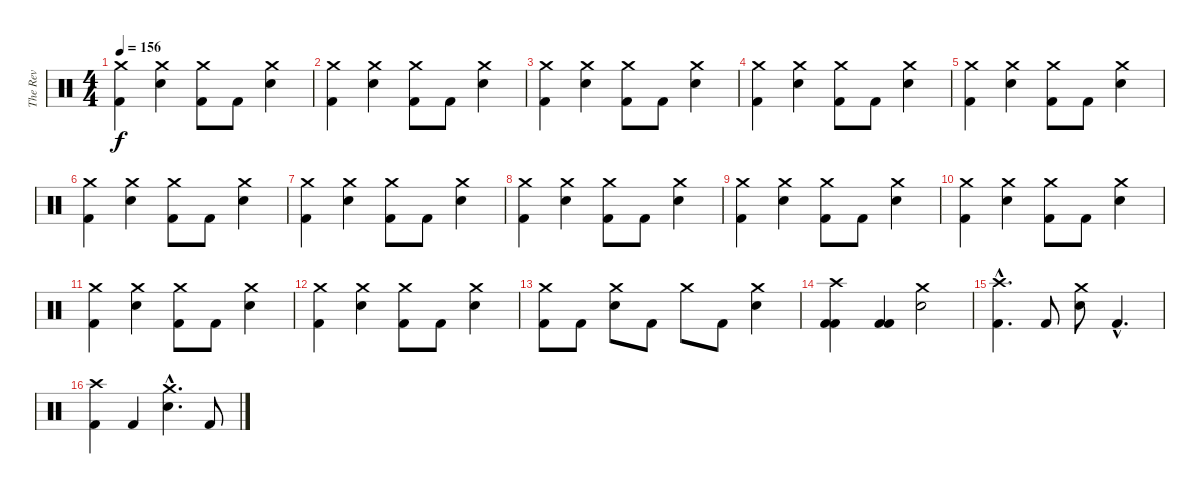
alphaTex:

\track ("The Rev" "The Rev") {instrument percussion}
\staff {score}
\articulation defaults
\ts (4 4)
\tempo 156
\clef neutral
\ks c
("Crash medium (hit)" "Kick (hit) 2").4{dy f} ("Crash medium (hit)" "Electric Snare (hit)").4 ("Crash medium (hit)" "Kick (hit) 2").8 "Kick (hit) 2".8 ("Crash medium (hit)" "Electric Snare (hit)").4 |
("Crash medium (hit)" "Kick (hit) 2").4 ("Crash medium (hit)" "Electric Snare (hit)").4 ("Crash medium (hit)" "Kick (hit) 2").8 "Kick (hit) 2".8 ("Crash medium (hit)" "Electric Snare (hit)").4 |
("Crash medium (hit)" "Kick (hit) 2").4 ("Crash medium (hit)" "Electric Snare (hit)").4 ("Crash medium (hit)" "Kick (hit) 2").8 "Kick (hit) 2".8 ("Crash medium (hit)" "Electric Snare (hit)").4 |
("Crash medium (hit)" "Kick (hit) 2").4 ("Crash medium (hit)" "Electric Snare (hit)").4 ("Crash medium (hit)" "Kick (hit) 2").8 "Kick (hit) 2".8 ("Crash medium (hit)" "Electric Snare (hit)").4 |
("Crash medium (hit)" "Kick (hit) 2").4 ("Crash medium (hit)" "Electric Snare (hit)").4 ("Crash medium (hit)" "Kick (hit) 2").8 "Kick (hit) 2".8 ("Crash medium (hit)" "Electric Snare (hit)").4 |
("Crash medium (hit)" "Kick (hit) 2").4 ("Crash medium (hit)" "Electric Snare (hit)").4 ("Crash medium (hit)" "Kick (hit) 2").8 "Kick (hit) 2".8 ("Crash medium (hit)" "Electric Snare (hit)").4 |
("Crash medium (hit)" "Kick (hit) 2").4 ("Crash medium (hit)" "Electric Snare (hit)").4 ("Crash medium (hit)" "Kick (hit) 2").8 "Kick (hit) 2".8 ("Crash medium (hit)" "Electric Snare (hit)").4 |
("Crash medium (hit)" "Kick (hit) 2").4 ("Crash medium (hit)" "Electric Snare (hit)").4 ("Crash medium (hit)" "Kick (hit) 2").8 "Kick (hit) 2".8 ("Crash medium (hit)" "Electric Snare (hit)").4 |
("Crash medium (hit)" "Kick (hit) 2").4 ("Crash medium (hit)" "Electric Snare (hit)").4 ("Crash medium (hit)" "Kick (hit) 2").8 "Kick (hit) 2".8 ("Crash medium (hit)" "Electric Snare (hit)").4 |
("Crash medium (hit)" "Kick (hit) 2").4 ("Crash medium (hit)" "Electric Snare (hit)").4 ("Crash medium (hit)" "Kick (hit) 2").8 "Kick (hit) 2".8 ("Crash medium (hit)" "Electric Snare (hit)").4 |
("Crash medium (hit)" "Kick (hit) 2").4 ("Crash medium (hit)" "Electric Snare (hit)").4 ("Crash medium (hit)" "Kick (hit) 2").8 "Kick (hit) 2".8 ("Crash medium (hit)" "Electric Snare (hit)").4 |
("Crash medium (hit)" "Kick (hit) 2").4 ("Crash medium (hit)" "Electric Snare (hit)").4 ("Crash medium (hit)" "Kick (hit) 2").8 "Kick (hit) 2".8 ("Crash medium (hit)" "Electric Snare (hit)").4 |
("Crash medium (hit)" "Kick (hit) 2").8 "Kick (hit) 2".8 ("Crash medium (hit)" "Electric Snare (hit)").8 "Kick (hit) 2".8 "Crash medium (hit)".8 "Kick (hit) 2".8 ("Crash medium (hit)" "Electric Snare (hit)").4 |
("Crash high (hit)" "Kick (hit) 2" "Kick (hit) 2").4 ("Kick (hit) 2" "Kick (hit) 2").4 ("Crash medium (hit)" "Electric Snare (hit)").2 |
("Crash high (hit)"{hac} "Kick (hit) 2"{hac}).4{d} "Kick (hit) 2".8 ("Crash medium (hit)" "Electric Snare (hit)").8 "Kick (hit) 2"{hac}.4{d} |
("Crash high (hit)" "Kick (hit) 2").4 "Kick (hit) 2".4 ("Crash medium (hit)"{hac} "Electric Snare (hit)"{hac}).4{d} "Kick (hit) 2".8
